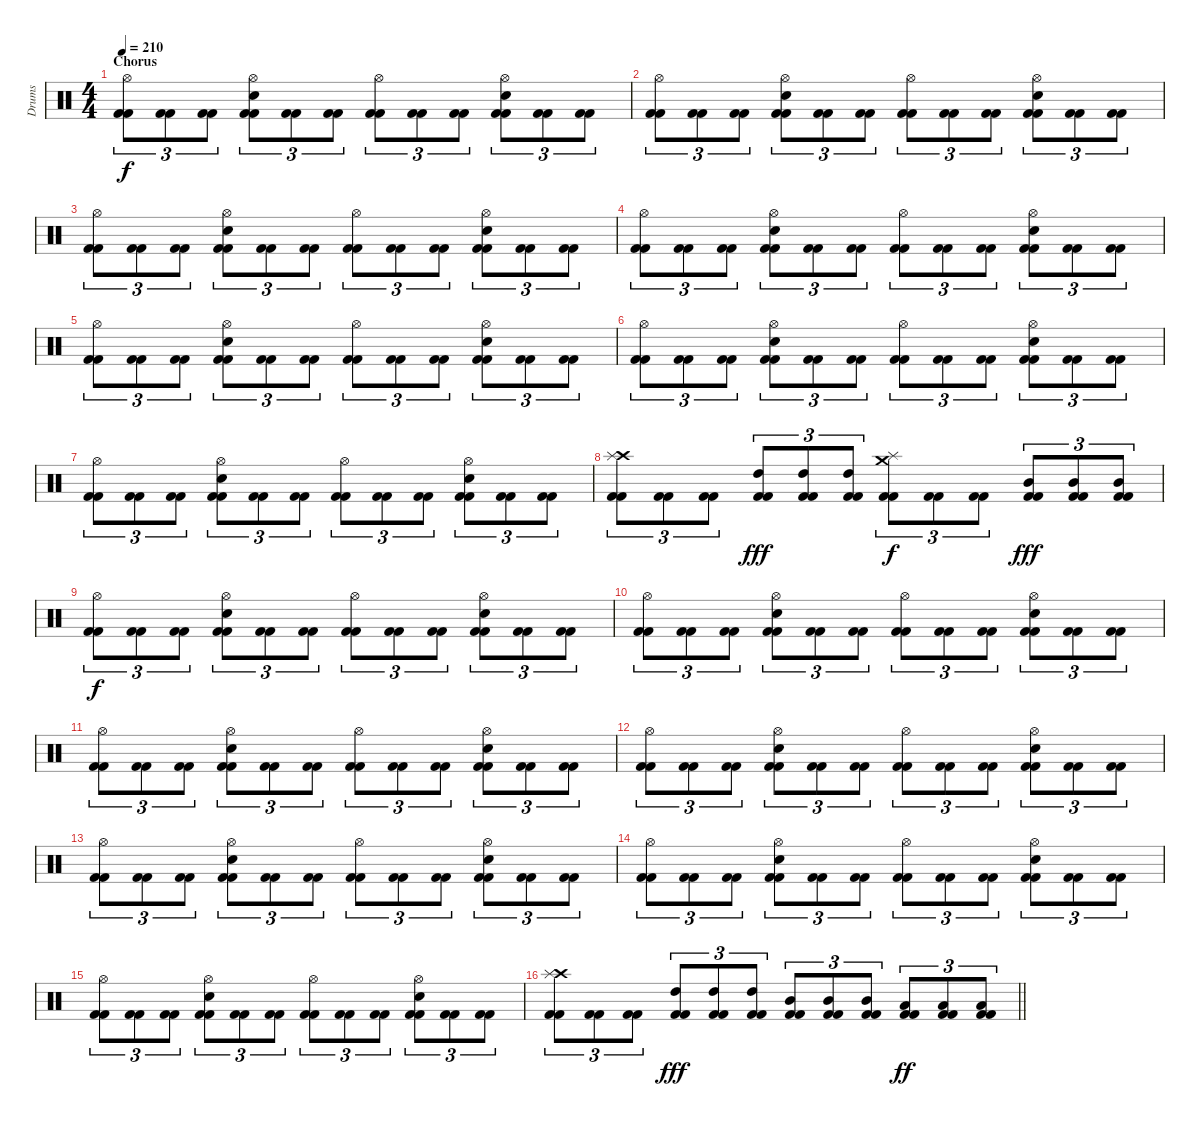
\track ("Drums" "Drums") {instrument percussion}
\staff {score}
\articulation defaults
\ts (4 4)
\section ("" "Chorus")
\tempo 210
\clef neutral
\ks c
("Hi-Hat (open)" "Kick (hit) 2" "Kick (hit) 2").8{tu (3 2) dy f} ("Kick (hit) 2" "Kick (hit) 2").8{tu (3 2)} ("Kick (hit) 2" "Kick (hit) 2").8{tu (3 2)} ("Hi-Hat (open)" "Snare (hit) 2" "Kick (hit) 2" "Kick (hit) 2").8{tu (3 2)} ("Kick (hit) 2" "Kick (hit) 2").8{tu (3 2)} ("Kick (hit) 2" "Kick (hit) 2").8{tu (3 2)} ("Hi-Hat (open)" "Kick (hit) 2" "Kick (hit) 2").8{tu (3 2)} ("Kick (hit) 2" "Kick (hit) 2").8{tu (3 2)} ("Kick (hit) 2" "Kick (hit) 2").8{tu (3 2)} ("Hi-Hat (open)" "Snare (hit) 2" "Kick (hit) 2" "Kick (hit) 2").8{tu (3 2)} ("Kick (hit) 2" "Kick (hit) 2").8{tu (3 2)} ("Kick (hit) 2" "Kick (hit) 2").8{tu (3 2)} |
("Hi-Hat (open)" "Kick (hit) 2" "Kick (hit) 2").8{tu (3 2)} ("Kick (hit) 2" "Kick (hit) 2").8{tu (3 2)} ("Kick (hit) 2" "Kick (hit) 2").8{tu (3 2)} ("Hi-Hat (open)" "Snare (hit) 2" "Kick (hit) 2" "Kick (hit) 2").8{tu (3 2)} ("Kick (hit) 2" "Kick (hit) 2").8{tu (3 2)} ("Kick (hit) 2" "Kick (hit) 2").8{tu (3 2)} ("Hi-Hat (open)" "Kick (hit) 2" "Kick (hit) 2").8{tu (3 2)} ("Kick (hit) 2" "Kick (hit) 2").8{tu (3 2)} ("Kick (hit) 2" "Kick (hit) 2").8{tu (3 2)} ("Hi-Hat (open)" "Snare (hit) 2" "Kick (hit) 2" "Kick (hit) 2").8{tu (3 2)} ("Kick (hit) 2" "Kick (hit) 2").8{tu (3 2)} ("Kick (hit) 2" "Kick (hit) 2").8{tu (3 2)} |
("Hi-Hat (open)" "Kick (hit) 2" "Kick (hit) 2").8{tu (3 2)} ("Kick (hit) 2" "Kick (hit) 2").8{tu (3 2)} ("Kick (hit) 2" "Kick (hit) 2").8{tu (3 2)} ("Hi-Hat (open)" "Snare (hit) 2" "Kick (hit) 2" "Kick (hit) 2").8{tu (3 2)} ("Kick (hit) 2" "Kick (hit) 2").8{tu (3 2)} ("Kick (hit) 2" "Kick (hit) 2").8{tu (3 2)} ("Hi-Hat (open)" "Kick (hit) 2" "Kick (hit) 2").8{tu (3 2)} ("Kick (hit) 2" "Kick (hit) 2").8{tu (3 2)} ("Kick (hit) 2" "Kick (hit) 2").8{tu (3 2)} ("Hi-Hat (open)" "Snare (hit) 2" "Kick (hit) 2" "Kick (hit) 2").8{tu (3 2)} ("Kick (hit) 2" "Kick (hit) 2").8{tu (3 2)} ("Kick (hit) 2" "Kick (hit) 2").8{tu (3 2)} |
("Hi-Hat (open)" "Kick (hit) 2" "Kick (hit) 2").8{tu (3 2)} ("Kick (hit) 2" "Kick (hit) 2").8{tu (3 2)} ("Kick (hit) 2" "Kick (hit) 2").8{tu (3 2)} ("Hi-Hat (open)" "Snare (hit) 2" "Kick (hit) 2" "Kick (hit) 2").8{tu (3 2)} ("Kick (hit) 2" "Kick (hit) 2").8{tu (3 2)} ("Kick (hit) 2" "Kick (hit) 2").8{tu (3 2)} ("Hi-Hat (open)" "Kick (hit) 2" "Kick (hit) 2").8{tu (3 2)} ("Kick (hit) 2" "Kick (hit) 2").8{tu (3 2)} ("Kick (hit) 2" "Kick (hit) 2").8{tu (3 2)} ("Hi-Hat (open)" "Snare (hit) 2" "Kick (hit) 2" "Kick (hit) 2").8{tu (3 2)} ("Kick (hit) 2" "Kick (hit) 2").8{tu (3 2)} ("Kick (hit) 2" "Kick (hit) 2").8{tu (3 2)} |
("Hi-Hat (open)" "Kick (hit) 2" "Kick (hit) 2").8{tu (3 2)} ("Kick (hit) 2" "Kick (hit) 2").8{tu (3 2)} ("Kick (hit) 2" "Kick (hit) 2").8{tu (3 2)} ("Hi-Hat (open)" "Snare (hit) 2" "Kick (hit) 2" "Kick (hit) 2").8{tu (3 2)} ("Kick (hit) 2" "Kick (hit) 2").8{tu (3 2)} ("Kick (hit) 2" "Kick (hit) 2").8{tu (3 2)} ("Hi-Hat (open)" "Kick (hit) 2" "Kick (hit) 2").8{tu (3 2)} ("Kick (hit) 2" "Kick (hit) 2").8{tu (3 2)} ("Kick (hit) 2" "Kick (hit) 2").8{tu (3 2)} ("Hi-Hat (open)" "Snare (hit) 2" "Kick (hit) 2" "Kick (hit) 2").8{tu (3 2)} ("Kick (hit) 2" "Kick (hit) 2").8{tu (3 2)} ("Kick (hit) 2" "Kick (hit) 2").8{tu (3 2)} |
("Hi-Hat (open)" "Kick (hit) 2" "Kick (hit) 2").8{tu (3 2)} ("Kick (hit) 2" "Kick (hit) 2").8{tu (3 2)} ("Kick (hit) 2" "Kick (hit) 2").8{tu (3 2)} ("Hi-Hat (open)" "Snare (hit) 2" "Kick (hit) 2" "Kick (hit) 2").8{tu (3 2)} ("Kick (hit) 2" "Kick (hit) 2").8{tu (3 2)} ("Kick (hit) 2" "Kick (hit) 2").8{tu (3 2)} ("Hi-Hat (open)" "Kick (hit) 2" "Kick (hit) 2").8{tu (3 2)} ("Kick (hit) 2" "Kick (hit) 2").8{tu (3 2)} ("Kick (hit) 2" "Kick (hit) 2").8{tu (3 2)} ("Hi-Hat (open)" "Snare (hit) 2" "Kick (hit) 2" "Kick (hit) 2").8{tu (3 2)} ("Kick (hit) 2" "Kick (hit) 2").8{tu (3 2)} ("Kick (hit) 2" "Kick (hit) 2").8{tu (3 2)} |
("Hi-Hat (open)" "Kick (hit) 2" "Kick (hit) 2").8{tu (3 2)} ("Kick (hit) 2" "Kick (hit) 2").8{tu (3 2)} ("Kick (hit) 2" "Kick (hit) 2").8{tu (3 2)} ("Hi-Hat (open)" "Snare (hit) 2" "Kick (hit) 2" "Kick (hit) 2").8{tu (3 2)} ("Kick (hit) 2" "Kick (hit) 2").8{tu (3 2)} ("Kick (hit) 2" "Kick (hit) 2").8{tu (3 2)} ("Hi-Hat (open)" "Kick (hit) 2" "Kick (hit) 2").8{tu (3 2)} ("Kick (hit) 2" "Kick (hit) 2").8{tu (3 2)} ("Kick (hit) 2" "Kick (hit) 2").8{tu (3 2)} ("Hi-Hat (open)" "Snare (hit) 2" "Kick (hit) 2" "Kick (hit) 2").8{tu (3 2)} ("Kick (hit) 2" "Kick (hit) 2").8{tu (3 2)} ("Kick (hit) 2" "Kick (hit) 2").8{tu (3 2)} |
("Crash high (hit)" "Splash (hit)" "Kick (hit) 2" "Kick (hit) 2").8{tu (3 2)} ("Kick (hit) 2" "Kick (hit) 2").8{tu (3 2)} ("Kick (hit) 2" "Kick (hit) 2").8{tu (3 2)} ("High Tom (hit)" "Kick (hit) 2" "Kick (hit) 2").8{tu (3 2) dy fff} ("High Tom (hit)" "Kick (hit) 2" "Kick (hit) 2").8{tu (3 2)} ("High Tom (hit)" "Kick (hit) 2" "Kick (hit) 2").8{tu (3 2)} ("Crash medium (hit)" "Splash (hit)" "Kick (hit) 2" "Kick (hit) 2").8{tu (3 2) dy f} ("Kick (hit) 2" "Kick (hit) 2").8{tu (3 2)} ("Kick (hit) 2" "Kick (hit) 2").8{tu (3 2)} ("Mid Tom (hit)" "Kick (hit) 2" "Kick (hit) 2").8{tu (3 2) dy fff} ("Mid Tom (hit)" "Kick (hit) 2" "Kick (hit) 2").8{tu (3 2)} ("Mid Tom (hit)" "Kick (hit) 2" "Kick (hit) 2").8{tu (3 2)} |
("Hi-Hat (open)" "Kick (hit) 2" "Kick (hit) 2").8{tu (3 2) dy f} ("Kick (hit) 2" "Kick (hit) 2").8{tu (3 2)} ("Kick (hit) 2" "Kick (hit) 2").8{tu (3 2)} ("Hi-Hat (open)" "Snare (hit) 2" "Kick (hit) 2" "Kick (hit) 2").8{tu (3 2)} ("Kick (hit) 2" "Kick (hit) 2").8{tu (3 2)} ("Kick (hit) 2" "Kick (hit) 2").8{tu (3 2)} ("Hi-Hat (open)" "Kick (hit) 2" "Kick (hit) 2").8{tu (3 2)} ("Kick (hit) 2" "Kick (hit) 2").8{tu (3 2)} ("Kick (hit) 2" "Kick (hit) 2").8{tu (3 2)} ("Hi-Hat (open)" "Snare (hit) 2" "Kick (hit) 2" "Kick (hit) 2").8{tu (3 2)} ("Kick (hit) 2" "Kick (hit) 2").8{tu (3 2)} ("Kick (hit) 2" "Kick (hit) 2").8{tu (3 2)} |
("Hi-Hat (open)" "Kick (hit) 2" "Kick (hit) 2").8{tu (3 2)} ("Kick (hit) 2" "Kick (hit) 2").8{tu (3 2)} ("Kick (hit) 2" "Kick (hit) 2").8{tu (3 2)} ("Hi-Hat (open)" "Snare (hit) 2" "Kick (hit) 2" "Kick (hit) 2").8{tu (3 2)} ("Kick (hit) 2" "Kick (hit) 2").8{tu (3 2)} ("Kick (hit) 2" "Kick (hit) 2").8{tu (3 2)} ("Hi-Hat (open)" "Kick (hit) 2" "Kick (hit) 2").8{tu (3 2)} ("Kick (hit) 2" "Kick (hit) 2").8{tu (3 2)} ("Kick (hit) 2" "Kick (hit) 2").8{tu (3 2)} ("Hi-Hat (open)" "Snare (hit) 2" "Kick (hit) 2" "Kick (hit) 2").8{tu (3 2)} ("Kick (hit) 2" "Kick (hit) 2").8{tu (3 2)} ("Kick (hit) 2" "Kick (hit) 2").8{tu (3 2)} |
("Hi-Hat (open)" "Kick (hit) 2" "Kick (hit) 2").8{tu (3 2)} ("Kick (hit) 2" "Kick (hit) 2").8{tu (3 2)} ("Kick (hit) 2" "Kick (hit) 2").8{tu (3 2)} ("Hi-Hat (open)" "Snare (hit) 2" "Kick (hit) 2" "Kick (hit) 2").8{tu (3 2)} ("Kick (hit) 2" "Kick (hit) 2").8{tu (3 2)} ("Kick (hit) 2" "Kick (hit) 2").8{tu (3 2)} ("Hi-Hat (open)" "Kick (hit) 2" "Kick (hit) 2").8{tu (3 2)} ("Kick (hit) 2" "Kick (hit) 2").8{tu (3 2)} ("Kick (hit) 2" "Kick (hit) 2").8{tu (3 2)} ("Hi-Hat (open)" "Snare (hit) 2" "Kick (hit) 2" "Kick (hit) 2").8{tu (3 2)} ("Kick (hit) 2" "Kick (hit) 2").8{tu (3 2)} ("Kick (hit) 2" "Kick (hit) 2").8{tu (3 2)} |
("Hi-Hat (open)" "Kick (hit) 2" "Kick (hit) 2").8{tu (3 2)} ("Kick (hit) 2" "Kick (hit) 2").8{tu (3 2)} ("Kick (hit) 2" "Kick (hit) 2").8{tu (3 2)} ("Hi-Hat (open)" "Snare (hit) 2" "Kick (hit) 2" "Kick (hit) 2").8{tu (3 2)} ("Kick (hit) 2" "Kick (hit) 2").8{tu (3 2)} ("Kick (hit) 2" "Kick (hit) 2").8{tu (3 2)} ("Hi-Hat (open)" "Kick (hit) 2" "Kick (hit) 2").8{tu (3 2)} ("Kick (hit) 2" "Kick (hit) 2").8{tu (3 2)} ("Kick (hit) 2" "Kick (hit) 2").8{tu (3 2)} ("Hi-Hat (open)" "Snare (hit) 2" "Kick (hit) 2" "Kick (hit) 2").8{tu (3 2)} ("Kick (hit) 2" "Kick (hit) 2").8{tu (3 2)} ("Kick (hit) 2" "Kick (hit) 2").8{tu (3 2)} |
("Hi-Hat (open)" "Kick (hit) 2" "Kick (hit) 2").8{tu (3 2)} ("Kick (hit) 2" "Kick (hit) 2").8{tu (3 2)} ("Kick (hit) 2" "Kick (hit) 2").8{tu (3 2)} ("Hi-Hat (open)" "Snare (hit) 2" "Kick (hit) 2" "Kick (hit) 2").8{tu (3 2)} ("Kick (hit) 2" "Kick (hit) 2").8{tu (3 2)} ("Kick (hit) 2" "Kick (hit) 2").8{tu (3 2)} ("Hi-Hat (open)" "Kick (hit) 2" "Kick (hit) 2").8{tu (3 2)} ("Kick (hit) 2" "Kick (hit) 2").8{tu (3 2)} ("Kick (hit) 2" "Kick (hit) 2").8{tu (3 2)} ("Hi-Hat (open)" "Snare (hit) 2" "Kick (hit) 2" "Kick (hit) 2").8{tu (3 2)} ("Kick (hit) 2" "Kick (hit) 2").8{tu (3 2)} ("Kick (hit) 2" "Kick (hit) 2").8{tu (3 2)} |
("Hi-Hat (open)" "Kick (hit) 2" "Kick (hit) 2").8{tu (3 2)} ("Kick (hit) 2" "Kick (hit) 2").8{tu (3 2)} ("Kick (hit) 2" "Kick (hit) 2").8{tu (3 2)} ("Hi-Hat (open)" "Snare (hit) 2" "Kick (hit) 2" "Kick (hit) 2").8{tu (3 2)} ("Kick (hit) 2" "Kick (hit) 2").8{tu (3 2)} ("Kick (hit) 2" "Kick (hit) 2").8{tu (3 2)} ("Hi-Hat (open)" "Kick (hit) 2" "Kick (hit) 2").8{tu (3 2)} ("Kick (hit) 2" "Kick (hit) 2").8{tu (3 2)} ("Kick (hit) 2" "Kick (hit) 2").8{tu (3 2)} ("Hi-Hat (open)" "Snare (hit) 2" "Kick (hit) 2" "Kick (hit) 2").8{tu (3 2)} ("Kick (hit) 2" "Kick (hit) 2").8{tu (3 2)} ("Kick (hit) 2" "Kick (hit) 2").8{tu (3 2)} |
("Hi-Hat (open)" "Kick (hit) 2" "Kick (hit) 2").8{tu (3 2)} ("Kick (hit) 2" "Kick (hit) 2").8{tu (3 2)} ("Kick (hit) 2" "Kick (hit) 2").8{tu (3 2)} ("Hi-Hat (open)" "Snare (hit) 2" "Kick (hit) 2" "Kick (hit) 2").8{tu (3 2)} ("Kick (hit) 2" "Kick (hit) 2").8{tu (3 2)} ("Kick (hit) 2" "Kick (hit) 2").8{tu (3 2)} ("Hi-Hat (open)" "Kick (hit) 2" "Kick (hit) 2").8{tu (3 2)} ("Kick (hit) 2" "Kick (hit) 2").8{tu (3 2)} ("Kick (hit) 2" "Kick (hit) 2").8{tu (3 2)} ("Hi-Hat (open)" "Snare (hit) 2" "Kick (hit) 2" "Kick (hit) 2").8{tu (3 2)} ("Kick (hit) 2" "Kick (hit) 2").8{tu (3 2)} ("Kick (hit) 2" "Kick (hit) 2").8{tu (3 2)} |
\barLineRight lightlight
("Crash high (hit)" "Splash (hit)" "Kick (hit) 2" "Kick (hit) 2").8{tu (3 2)} ("Kick (hit) 2" "Kick (hit) 2").8{tu (3 2)} ("Kick (hit) 2" "Kick (hit) 2").8{tu (3 2)} ("High Tom (hit)" "Kick (hit) 2" "Kick (hit) 2").8{tu (3 2) dy fff} ("High Tom (hit)" "Kick (hit) 2" "Kick (hit) 2").8{tu (3 2)} ("High Tom (hit)" "Kick (hit) 2" "Kick (hit) 2").8{tu (3 2)} ("Mid Tom (hit)" "Kick (hit) 2" "Kick (hit) 2").8{tu (3 2)} ("Mid Tom (hit)" "Kick (hit) 2" "Kick (hit) 2").8{tu (3 2)} ("Mid Tom (hit)" "Kick (hit) 2" "Kick (hit) 2").8{tu (3 2)} ("Low Tom (hit)" "Kick (hit) 2" "Kick (hit) 2").8{tu (3 2) dy ff} ("Low Tom (hit)" "Kick (hit) 2" "Kick (hit) 2").8{tu (3 2)} ("Low Tom (hit)" "Kick (hit) 2" "Kick (hit) 2").8{tu (3 2)}
